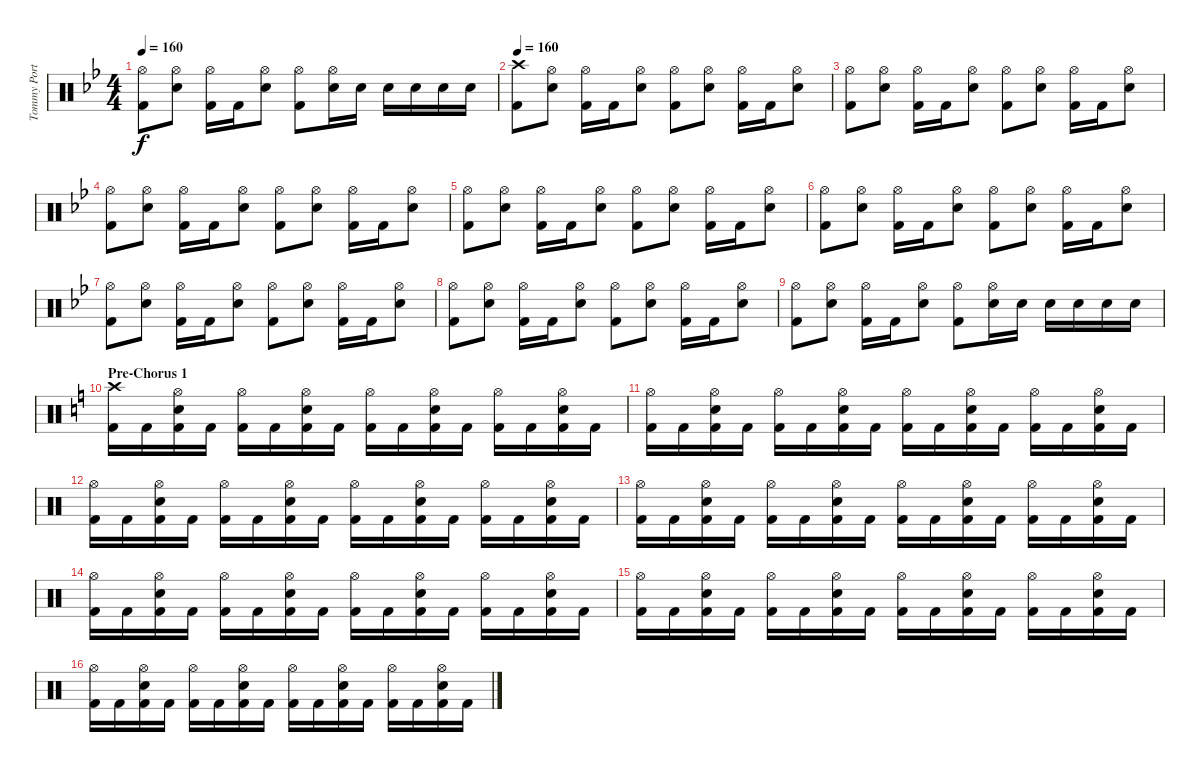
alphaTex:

\track ("Tommy Portimo" "Tommy Port") {instrument percussion}
\staff {score}
\articulation defaults
\ts (4 4)
\tempo 160
\clef neutral
\ks gminor
("Hi-Hat (open)" "Kick (hit) 2").8{dy f} ("Hi-Hat (open)" "Snare (hit) 2").8 ("Hi-Hat (open)" "Kick (hit) 2").16 "Kick (hit) 2".16 ("Hi-Hat (open)" "Snare (hit) 2").8 ("Hi-Hat (open)" "Kick (hit) 2").8 ("Hi-Hat (open)" "Snare (hit) 2").16 "Snare (hit) 2".16 "Snare (hit) 2".16 "Snare (hit) 2".16 "Snare (hit) 2".16 "Snare (hit) 2".16 |
\tempo 160
("Crash high (hit)" "Kick (hit) 2").8 ("Hi-Hat (open)" "Snare (hit) 2").8 ("Hi-Hat (open)" "Kick (hit) 2").16 "Kick (hit) 2".16 ("Hi-Hat (open)" "Snare (hit) 2").8 ("Hi-Hat (open)" "Kick (hit) 2").8 ("Hi-Hat (open)" "Snare (hit) 2").8 ("Hi-Hat (open)" "Kick (hit) 2").16 "Kick (hit) 2".16 ("Hi-Hat (open)" "Snare (hit) 2").8 |
("Hi-Hat (open)" "Kick (hit) 2").8 ("Hi-Hat (open)" "Snare (hit) 2").8 ("Hi-Hat (open)" "Kick (hit) 2").16 "Kick (hit) 2".16 ("Hi-Hat (open)" "Snare (hit) 2").8 ("Hi-Hat (open)" "Kick (hit) 2").8 ("Hi-Hat (open)" "Snare (hit) 2").8 ("Hi-Hat (open)" "Kick (hit) 2").16 "Kick (hit) 2".16 ("Hi-Hat (open)" "Snare (hit) 2").8 |
("Hi-Hat (open)" "Kick (hit) 2").8 ("Hi-Hat (open)" "Snare (hit) 2").8 ("Hi-Hat (open)" "Kick (hit) 2").16 "Kick (hit) 2".16 ("Hi-Hat (open)" "Snare (hit) 2").8 ("Hi-Hat (open)" "Kick (hit) 2").8 ("Hi-Hat (open)" "Snare (hit) 2").8 ("Hi-Hat (open)" "Kick (hit) 2").16 "Kick (hit) 2".16 ("Hi-Hat (open)" "Snare (hit) 2").8 |
("Hi-Hat (open)" "Kick (hit) 2").8 ("Hi-Hat (open)" "Snare (hit) 2").8 ("Hi-Hat (open)" "Kick (hit) 2").16 "Kick (hit) 2".16 ("Hi-Hat (open)" "Snare (hit) 2").8 ("Hi-Hat (open)" "Kick (hit) 2").8 ("Hi-Hat (open)" "Snare (hit) 2").8 ("Hi-Hat (open)" "Kick (hit) 2").16 "Kick (hit) 2".16 ("Hi-Hat (open)" "Snare (hit) 2").8 |
("Hi-Hat (open)" "Kick (hit) 2").8 ("Hi-Hat (open)" "Snare (hit) 2").8 ("Hi-Hat (open)" "Kick (hit) 2").16 "Kick (hit) 2".16 ("Hi-Hat (open)" "Snare (hit) 2").8 ("Hi-Hat (open)" "Kick (hit) 2").8 ("Hi-Hat (open)" "Snare (hit) 2").8 ("Hi-Hat (open)" "Kick (hit) 2").16 "Kick (hit) 2".16 ("Hi-Hat (open)" "Snare (hit) 2").8 |
("Hi-Hat (open)" "Kick (hit) 2").8 ("Hi-Hat (open)" "Snare (hit) 2").8 ("Hi-Hat (open)" "Kick (hit) 2").16 "Kick (hit) 2".16 ("Hi-Hat (open)" "Snare (hit) 2").8 ("Hi-Hat (open)" "Kick (hit) 2").8 ("Hi-Hat (open)" "Snare (hit) 2").8 ("Hi-Hat (open)" "Kick (hit) 2").16 "Kick (hit) 2".16 ("Hi-Hat (open)" "Snare (hit) 2").8 |
("Hi-Hat (open)" "Kick (hit) 2").8 ("Hi-Hat (open)" "Snare (hit) 2").8 ("Hi-Hat (open)" "Kick (hit) 2").16 "Kick (hit) 2".16 ("Hi-Hat (open)" "Snare (hit) 2").8 ("Hi-Hat (open)" "Kick (hit) 2").8 ("Hi-Hat (open)" "Snare (hit) 2").8 ("Hi-Hat (open)" "Kick (hit) 2").16 "Kick (hit) 2".16 ("Hi-Hat (open)" "Snare (hit) 2").8 |
("Hi-Hat (open)" "Kick (hit) 2").8 ("Hi-Hat (open)" "Snare (hit) 2").8 ("Hi-Hat (open)" "Kick (hit) 2").16 "Kick (hit) 2".16 ("Hi-Hat (open)" "Snare (hit) 2").8 ("Hi-Hat (open)" "Kick (hit) 2").8 ("Hi-Hat (open)" "Snare (hit) 2").16 "Snare (hit) 2".16 "Snare (hit) 2".16 "Snare (hit) 2".16 "Snare (hit) 2".16 "Snare (hit) 2".16 |
\section ("" "Pre-Chorus 1")
\ks c
("Crash high (hit)" "Kick (hit) 2").16 "Kick (hit) 2".16 ("Hi-Hat (open)" "Snare (hit) 2" "Kick (hit) 2").16 "Kick (hit) 2".16 ("Hi-Hat (open)" "Kick (hit) 2").16 "Kick (hit) 2".16 ("Hi-Hat (open)" "Snare (hit) 2" "Kick (hit) 2").16 "Kick (hit) 2".16 ("Hi-Hat (open)" "Kick (hit) 2").16 "Kick (hit) 2".16 ("Hi-Hat (open)" "Snare (hit) 2" "Kick (hit) 2").16 "Kick (hit) 2".16 ("Hi-Hat (open)" "Kick (hit) 2").16 "Kick (hit) 2".16 ("Hi-Hat (open)" "Snare (hit) 2" "Kick (hit) 2").16 "Kick (hit) 2".16 |
("Hi-Hat (open)" "Kick (hit) 2").16 "Kick (hit) 2".16 ("Hi-Hat (open)" "Snare (hit) 2" "Kick (hit) 2").16 "Kick (hit) 2".16 ("Hi-Hat (open)" "Kick (hit) 2").16 "Kick (hit) 2".16 ("Hi-Hat (open)" "Snare (hit) 2" "Kick (hit) 2").16 "Kick (hit) 2".16 ("Hi-Hat (open)" "Kick (hit) 2").16 "Kick (hit) 2".16 ("Hi-Hat (open)" "Snare (hit) 2" "Kick (hit) 2").16 "Kick (hit) 2".16 ("Hi-Hat (open)" "Kick (hit) 2").16 "Kick (hit) 2".16 ("Hi-Hat (open)" "Snare (hit) 2" "Kick (hit) 2").16 "Kick (hit) 2".16 |
("Hi-Hat (open)" "Kick (hit) 2").16 "Kick (hit) 2".16 ("Hi-Hat (open)" "Snare (hit) 2" "Kick (hit) 2").16 "Kick (hit) 2".16 ("Hi-Hat (open)" "Kick (hit) 2").16 "Kick (hit) 2".16 ("Hi-Hat (open)" "Snare (hit) 2" "Kick (hit) 2").16 "Kick (hit) 2".16 ("Hi-Hat (open)" "Kick (hit) 2").16 "Kick (hit) 2".16 ("Hi-Hat (open)" "Snare (hit) 2" "Kick (hit) 2").16 "Kick (hit) 2".16 ("Hi-Hat (open)" "Kick (hit) 2").16 "Kick (hit) 2".16 ("Hi-Hat (open)" "Snare (hit) 2" "Kick (hit) 2").16 "Kick (hit) 2".16 |
("Hi-Hat (open)" "Kick (hit) 2").16 "Kick (hit) 2".16 ("Hi-Hat (open)" "Snare (hit) 2" "Kick (hit) 2").16 "Kick (hit) 2".16 ("Hi-Hat (open)" "Kick (hit) 2").16 "Kick (hit) 2".16 ("Hi-Hat (open)" "Snare (hit) 2" "Kick (hit) 2").16 "Kick (hit) 2".16 ("Hi-Hat (open)" "Kick (hit) 2").16 "Kick (hit) 2".16 ("Hi-Hat (open)" "Snare (hit) 2" "Kick (hit) 2").16 "Kick (hit) 2".16 ("Hi-Hat (open)" "Kick (hit) 2").16 "Kick (hit) 2".16 ("Hi-Hat (open)" "Snare (hit) 2" "Kick (hit) 2").16 "Kick (hit) 2".16 |
("Hi-Hat (open)" "Kick (hit) 2").16 "Kick (hit) 2".16 ("Hi-Hat (open)" "Snare (hit) 2" "Kick (hit) 2").16 "Kick (hit) 2".16 ("Hi-Hat (open)" "Kick (hit) 2").16 "Kick (hit) 2".16 ("Hi-Hat (open)" "Snare (hit) 2" "Kick (hit) 2").16 "Kick (hit) 2".16 ("Hi-Hat (open)" "Kick (hit) 2").16 "Kick (hit) 2".16 ("Hi-Hat (open)" "Snare (hit) 2" "Kick (hit) 2").16 "Kick (hit) 2".16 ("Hi-Hat (open)" "Kick (hit) 2").16 "Kick (hit) 2".16 ("Hi-Hat (open)" "Snare (hit) 2" "Kick (hit) 2").16 "Kick (hit) 2".16 |
("Hi-Hat (open)" "Kick (hit) 2").16 "Kick (hit) 2".16 ("Hi-Hat (open)" "Snare (hit) 2" "Kick (hit) 2").16 "Kick (hit) 2".16 ("Hi-Hat (open)" "Kick (hit) 2").16 "Kick (hit) 2".16 ("Hi-Hat (open)" "Snare (hit) 2" "Kick (hit) 2").16 "Kick (hit) 2".16 ("Hi-Hat (open)" "Kick (hit) 2").16 "Kick (hit) 2".16 ("Hi-Hat (open)" "Snare (hit) 2" "Kick (hit) 2").16 "Kick (hit) 2".16 ("Hi-Hat (open)" "Kick (hit) 2").16 "Kick (hit) 2".16 ("Hi-Hat (open)" "Snare (hit) 2" "Kick (hit) 2").16 "Kick (hit) 2".16 |
("Hi-Hat (open)" "Kick (hit) 2").16 "Kick (hit) 2".16 ("Hi-Hat (open)" "Snare (hit) 2" "Kick (hit) 2").16 "Kick (hit) 2".16 ("Hi-Hat (open)" "Kick (hit) 2").16 "Kick (hit) 2".16 ("Hi-Hat (open)" "Snare (hit) 2" "Kick (hit) 2").16 "Kick (hit) 2".16 ("Hi-Hat (open)" "Kick (hit) 2").16 "Kick (hit) 2".16 ("Hi-Hat (open)" "Snare (hit) 2" "Kick (hit) 2").16 "Kick (hit) 2".16 ("Hi-Hat (open)" "Kick (hit) 2").16 "Kick (hit) 2".16 ("Hi-Hat (open)" "Snare (hit) 2" "Kick (hit) 2").16 "Kick (hit) 2".16
